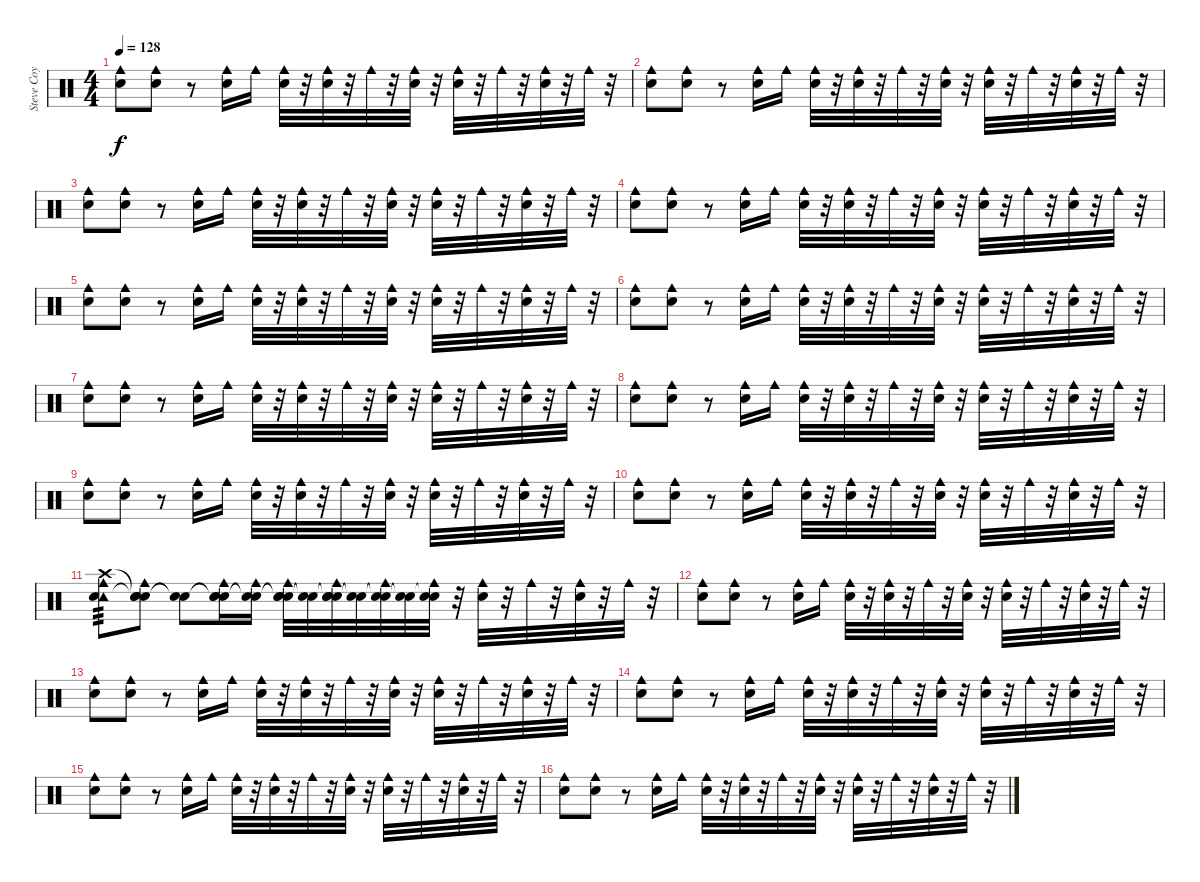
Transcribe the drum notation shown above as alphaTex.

\track ("Steve Coy" "Steve Coy") {instrument percussion}
\staff {score}
\articulation defaults
\ts (4 4)
\tempo 128
\clef neutral
\ks c
("Cowbell medium (hit)" "Hand Clap (hit)").8{dy f} ("Cowbell medium (hit)" "Hand Clap (hit)").8 r.8 ("Cowbell medium (hit)" "Hand Clap (hit)").16 "Cowbell medium (hit)".16 ("Cowbell medium (hit)" "Hand Clap (hit)").32 r.32 ("Cowbell medium (hit)" "Hand Clap (hit)").32 r.32 "Cowbell medium (hit)".32 r.32 ("Cowbell medium (hit)" "Hand Clap (hit)").32 r.32 ("Cowbell medium (hit)" "Hand Clap (hit)").32 r.32 "Cowbell medium (hit)".32 r.32 ("Cowbell medium (hit)" "Hand Clap (hit)").32 r.32 "Cowbell medium (hit)".32 r.32 |
("Cowbell medium (hit)" "Hand Clap (hit)").8 ("Cowbell medium (hit)" "Hand Clap (hit)").8 r.8 ("Cowbell medium (hit)" "Hand Clap (hit)").16 "Cowbell medium (hit)".16 ("Cowbell medium (hit)" "Hand Clap (hit)").32 r.32 ("Cowbell medium (hit)" "Hand Clap (hit)").32 r.32 "Cowbell medium (hit)".32 r.32 ("Cowbell medium (hit)" "Hand Clap (hit)").32 r.32 ("Cowbell medium (hit)" "Hand Clap (hit)").32 r.32 "Cowbell medium (hit)".32 r.32 ("Cowbell medium (hit)" "Hand Clap (hit)").32 r.32 "Cowbell medium (hit)".32 r.32 |
("Cowbell medium (hit)" "Hand Clap (hit)").8 ("Cowbell medium (hit)" "Hand Clap (hit)").8 r.8 ("Cowbell medium (hit)" "Hand Clap (hit)").16 "Cowbell medium (hit)".16 ("Cowbell medium (hit)" "Hand Clap (hit)").32 r.32 ("Cowbell medium (hit)" "Hand Clap (hit)").32 r.32 "Cowbell medium (hit)".32 r.32 ("Cowbell medium (hit)" "Hand Clap (hit)").32 r.32 ("Cowbell medium (hit)" "Hand Clap (hit)").32 r.32 "Cowbell medium (hit)".32 r.32 ("Cowbell medium (hit)" "Hand Clap (hit)").32 r.32 "Cowbell medium (hit)".32 r.32 |
("Cowbell medium (hit)" "Hand Clap (hit)").8 ("Cowbell medium (hit)" "Hand Clap (hit)").8 r.8 ("Cowbell medium (hit)" "Hand Clap (hit)").16 "Cowbell medium (hit)".16 ("Cowbell medium (hit)" "Hand Clap (hit)").32 r.32 ("Cowbell medium (hit)" "Hand Clap (hit)").32 r.32 "Cowbell medium (hit)".32 r.32 ("Cowbell medium (hit)" "Hand Clap (hit)").32 r.32 ("Cowbell medium (hit)" "Hand Clap (hit)").32 r.32 "Cowbell medium (hit)".32 r.32 ("Cowbell medium (hit)" "Hand Clap (hit)").32 r.32 "Cowbell medium (hit)".32 r.32 |
("Cowbell medium (hit)" "Hand Clap (hit)").8 ("Cowbell medium (hit)" "Hand Clap (hit)").8 r.8 ("Cowbell medium (hit)" "Hand Clap (hit)").16 "Cowbell medium (hit)".16 ("Cowbell medium (hit)" "Hand Clap (hit)").32 r.32 ("Cowbell medium (hit)" "Hand Clap (hit)").32 r.32 "Cowbell medium (hit)".32 r.32 ("Cowbell medium (hit)" "Hand Clap (hit)").32 r.32 ("Cowbell medium (hit)" "Hand Clap (hit)").32 r.32 "Cowbell medium (hit)".32 r.32 ("Cowbell medium (hit)" "Hand Clap (hit)").32 r.32 "Cowbell medium (hit)".32 r.32 |
("Cowbell medium (hit)" "Hand Clap (hit)").8 ("Cowbell medium (hit)" "Hand Clap (hit)").8 r.8 ("Cowbell medium (hit)" "Hand Clap (hit)").16 "Cowbell medium (hit)".16 ("Cowbell medium (hit)" "Hand Clap (hit)").32 r.32 ("Cowbell medium (hit)" "Hand Clap (hit)").32 r.32 "Cowbell medium (hit)".32 r.32 ("Cowbell medium (hit)" "Hand Clap (hit)").32 r.32 ("Cowbell medium (hit)" "Hand Clap (hit)").32 r.32 "Cowbell medium (hit)".32 r.32 ("Cowbell medium (hit)" "Hand Clap (hit)").32 r.32 "Cowbell medium (hit)".32 r.32 |
("Cowbell medium (hit)" "Hand Clap (hit)").8 ("Cowbell medium (hit)" "Hand Clap (hit)").8 r.8 ("Cowbell medium (hit)" "Hand Clap (hit)").16 "Cowbell medium (hit)".16 ("Cowbell medium (hit)" "Hand Clap (hit)").32 r.32 ("Cowbell medium (hit)" "Hand Clap (hit)").32 r.32 "Cowbell medium (hit)".32 r.32 ("Cowbell medium (hit)" "Hand Clap (hit)").32 r.32 ("Cowbell medium (hit)" "Hand Clap (hit)").32 r.32 "Cowbell medium (hit)".32 r.32 ("Cowbell medium (hit)" "Hand Clap (hit)").32 r.32 "Cowbell medium (hit)".32 r.32 |
("Cowbell medium (hit)" "Hand Clap (hit)").8 ("Cowbell medium (hit)" "Hand Clap (hit)").8 r.8 ("Cowbell medium (hit)" "Hand Clap (hit)").16 "Cowbell medium (hit)".16 ("Cowbell medium (hit)" "Hand Clap (hit)").32 r.32 ("Cowbell medium (hit)" "Hand Clap (hit)").32 r.32 "Cowbell medium (hit)".32 r.32 ("Cowbell medium (hit)" "Hand Clap (hit)").32 r.32 ("Cowbell medium (hit)" "Hand Clap (hit)").32 r.32 "Cowbell medium (hit)".32 r.32 ("Cowbell medium (hit)" "Hand Clap (hit)").32 r.32 "Cowbell medium (hit)".32 r.32 |
("Cowbell medium (hit)" "Hand Clap (hit)").8 ("Cowbell medium (hit)" "Hand Clap (hit)").8 r.8 ("Cowbell medium (hit)" "Hand Clap (hit)").16 "Cowbell medium (hit)".16 ("Cowbell medium (hit)" "Hand Clap (hit)").32 r.32 ("Cowbell medium (hit)" "Hand Clap (hit)").32 r.32 "Cowbell medium (hit)".32 r.32 ("Cowbell medium (hit)" "Hand Clap (hit)").32 r.32 ("Cowbell medium (hit)" "Hand Clap (hit)").32 r.32 "Cowbell medium (hit)".32 r.32 ("Cowbell medium (hit)" "Hand Clap (hit)").32 r.32 "Cowbell medium (hit)".32 r.32 |
("Cowbell medium (hit)" "Hand Clap (hit)").8 ("Cowbell medium (hit)" "Hand Clap (hit)").8 r.8 ("Cowbell medium (hit)" "Hand Clap (hit)").16 "Cowbell medium (hit)".16 ("Cowbell medium (hit)" "Hand Clap (hit)").32 r.32 ("Cowbell medium (hit)" "Hand Clap (hit)").32 r.32 "Cowbell medium (hit)".32 r.32 ("Cowbell medium (hit)" "Hand Clap (hit)").32 r.32 ("Cowbell medium (hit)" "Hand Clap (hit)").32 r.32 "Cowbell medium (hit)".32 r.32 ("Cowbell medium (hit)" "Hand Clap (hit)").32 r.32 "Cowbell medium (hit)".32 r.32 |
("Tambourine (hit)" "Crash high (hit)" "Cowbell medium (hit)" "Hand Clap (hit)").8{tp 3} ("Snare (hit)"{t} "Snare (hit)"{t} "Cowbell medium (hit)" "Hand Clap (hit)").8 ("Snare (hit)"{t} "Snare (hit)"{t}).8 ("Snare (hit)"{t} "Snare (hit)"{t} "Cowbell medium (hit)" "Hand Clap (hit)").16 ("Snare (hit)"{t} "Snare (hit)"{t} "Cowbell medium (hit)").16 ("Snare (hit)"{t} "Snare (hit)"{t} "Cowbell medium (hit)" "Hand Clap (hit)").32 ("Snare (hit)"{t} "Snare (hit)"{t}).32 ("Snare (hit)"{t} "Snare (hit)"{t} "Cowbell medium (hit)" "Hand Clap (hit)").32 ("Snare (hit)"{t} "Snare (hit)"{t}).32 ("Snare (hit)"{t} "Snare (hit)"{t} "Cowbell medium (hit)").32 ("Snare (hit)"{t} "Snare (hit)"{t}).32 ("Snare (hit)"{t} "Cowbell medium (hit)" "Hand Clap (hit)").32 r.32 ("Cowbell medium (hit)" "Hand Clap (hit)").32 r.32 "Cowbell medium (hit)".32 r.32 ("Cowbell medium (hit)" "Hand Clap (hit)").32 r.32 "Cowbell medium (hit)".32 r.32 |
("Cowbell medium (hit)" "Hand Clap (hit)").8 ("Cowbell medium (hit)" "Hand Clap (hit)").8 r.8 ("Cowbell medium (hit)" "Hand Clap (hit)").16 "Cowbell medium (hit)".16 ("Cowbell medium (hit)" "Hand Clap (hit)").32 r.32 ("Cowbell medium (hit)" "Hand Clap (hit)").32 r.32 "Cowbell medium (hit)".32 r.32 ("Cowbell medium (hit)" "Hand Clap (hit)").32 r.32 ("Cowbell medium (hit)" "Hand Clap (hit)").32 r.32 "Cowbell medium (hit)".32 r.32 ("Cowbell medium (hit)" "Hand Clap (hit)").32 r.32 "Cowbell medium (hit)".32 r.32 |
("Cowbell medium (hit)" "Hand Clap (hit)").8 ("Cowbell medium (hit)" "Hand Clap (hit)").8 r.8 ("Cowbell medium (hit)" "Hand Clap (hit)").16 "Cowbell medium (hit)".16 ("Cowbell medium (hit)" "Hand Clap (hit)").32 r.32 ("Cowbell medium (hit)" "Hand Clap (hit)").32 r.32 "Cowbell medium (hit)".32 r.32 ("Cowbell medium (hit)" "Hand Clap (hit)").32 r.32 ("Cowbell medium (hit)" "Hand Clap (hit)").32 r.32 "Cowbell medium (hit)".32 r.32 ("Cowbell medium (hit)" "Hand Clap (hit)").32 r.32 "Cowbell medium (hit)".32 r.32 |
("Cowbell medium (hit)" "Hand Clap (hit)").8 ("Cowbell medium (hit)" "Hand Clap (hit)").8 r.8 ("Cowbell medium (hit)" "Hand Clap (hit)").16 "Cowbell medium (hit)".16 ("Cowbell medium (hit)" "Hand Clap (hit)").32 r.32 ("Cowbell medium (hit)" "Hand Clap (hit)").32 r.32 "Cowbell medium (hit)".32 r.32 ("Cowbell medium (hit)" "Hand Clap (hit)").32 r.32 ("Cowbell medium (hit)" "Hand Clap (hit)").32 r.32 "Cowbell medium (hit)".32 r.32 ("Cowbell medium (hit)" "Hand Clap (hit)").32 r.32 "Cowbell medium (hit)".32 r.32 |
("Cowbell medium (hit)" "Hand Clap (hit)").8 ("Cowbell medium (hit)" "Hand Clap (hit)").8 r.8 ("Cowbell medium (hit)" "Hand Clap (hit)").16 "Cowbell medium (hit)".16 ("Cowbell medium (hit)" "Hand Clap (hit)").32 r.32 ("Cowbell medium (hit)" "Hand Clap (hit)").32 r.32 "Cowbell medium (hit)".32 r.32 ("Cowbell medium (hit)" "Hand Clap (hit)").32 r.32 ("Cowbell medium (hit)" "Hand Clap (hit)").32 r.32 "Cowbell medium (hit)".32 r.32 ("Cowbell medium (hit)" "Hand Clap (hit)").32 r.32 "Cowbell medium (hit)".32 r.32 |
("Cowbell medium (hit)" "Hand Clap (hit)").8 ("Cowbell medium (hit)" "Hand Clap (hit)").8 r.8 ("Cowbell medium (hit)" "Hand Clap (hit)").16 "Cowbell medium (hit)".16 ("Cowbell medium (hit)" "Hand Clap (hit)").32 r.32 ("Cowbell medium (hit)" "Hand Clap (hit)").32 r.32 "Cowbell medium (hit)".32 r.32 ("Cowbell medium (hit)" "Hand Clap (hit)").32 r.32 ("Cowbell medium (hit)" "Hand Clap (hit)").32 r.32 "Cowbell medium (hit)".32 r.32 ("Cowbell medium (hit)" "Hand Clap (hit)").32 r.32 "Cowbell medium (hit)".32 r.32
